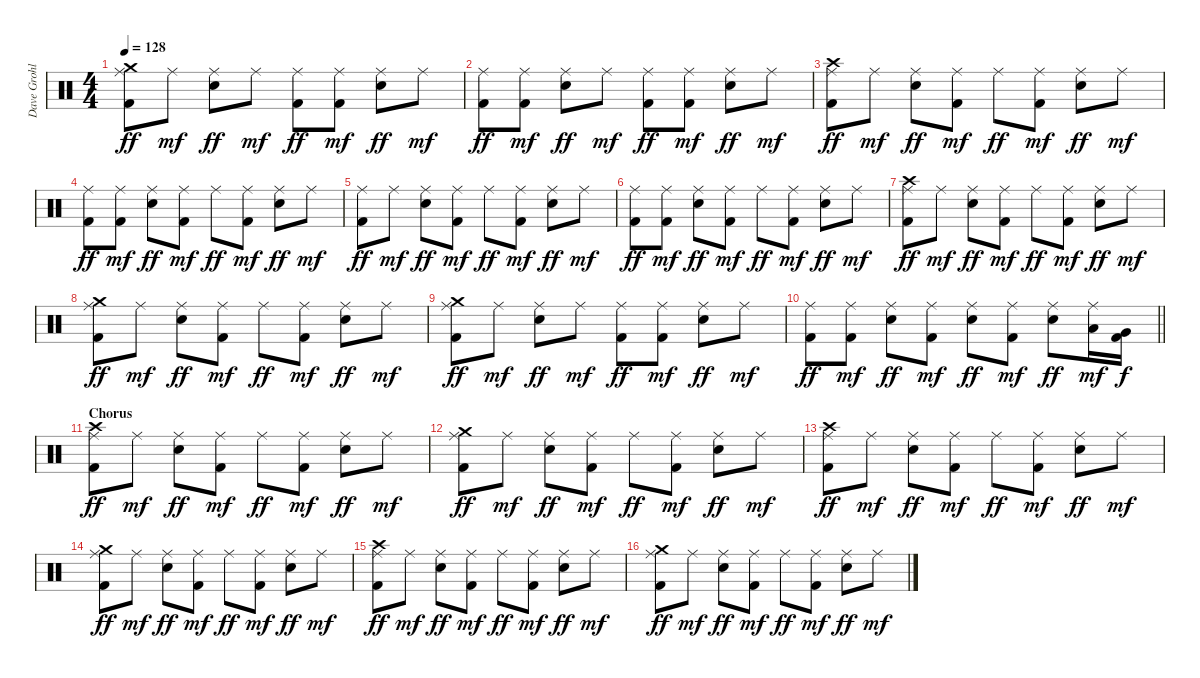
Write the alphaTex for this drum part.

\track ("Dave Grohl" "Dave Grohl") {instrument percussion}
\staff {score}
\articulation defaults
\ts (4 4)
\tempo 128
\clef neutral
\ks c
("Crash medium (hit)" "Ride (middle)" "Kick (hit) 2").8{dy ff} "Ride (middle)".8{dy mf} ("Ride (middle)" "Snare (hit) 2").8{dy ff} "Ride (middle)".8{dy mf} ("Ride (middle)" "Kick (hit) 2").8{dy ff} ("Ride (middle)" "Kick (hit) 2").8{dy mf} ("Ride (middle)" "Snare (hit) 2").8{dy ff} "Ride (middle)".8{dy mf} |
("Ride (middle)" "Kick (hit) 2").8{dy ff} ("Ride (middle)" "Kick (hit) 2").8{dy mf} ("Ride (middle)" "Snare (hit) 2").8{dy ff} "Ride (middle)".8{dy mf} ("Ride (middle)" "Kick (hit) 2").8{dy ff} ("Ride (middle)" "Kick (hit) 2").8{dy mf} ("Ride (middle)" "Snare (hit) 2").8{dy ff} "Ride (middle)".8{dy mf} |
("Crash high (hit)" "Ride (middle)" "Kick (hit) 2").8{dy ff} "Ride (middle)".8{dy mf} ("Ride (middle)" "Snare (hit) 2").8{dy ff} ("Ride (middle)" "Kick (hit) 2").8{dy mf} "Ride (middle)".8{dy ff} ("Ride (middle)" "Kick (hit) 2").8{dy mf} ("Ride (middle)" "Snare (hit) 2").8{dy ff} "Ride (middle)".8{dy mf} |
("Ride (middle)" "Kick (hit) 2").8{dy ff} ("Ride (middle)" "Kick (hit) 2").8{dy mf} ("Ride (middle)" "Snare (hit) 2").8{dy ff} ("Ride (middle)" "Kick (hit) 2").8{dy mf} "Ride (middle)".8{dy ff} ("Ride (middle)" "Kick (hit) 2").8{dy mf} ("Ride (middle)" "Snare (hit) 2").8{dy ff} "Ride (middle)".8{dy mf} |
("Ride (middle)" "Kick (hit) 2").8{dy ff} "Ride (middle)".8{dy mf} ("Ride (middle)" "Snare (hit) 2").8{dy ff} ("Ride (middle)" "Kick (hit) 2").8{dy mf} "Ride (middle)".8{dy ff} ("Ride (middle)" "Kick (hit) 2").8{dy mf} ("Ride (middle)" "Snare (hit) 2").8{dy ff} "Ride (middle)".8{dy mf} |
("Ride (middle)" "Kick (hit) 2").8{dy ff} ("Ride (middle)" "Kick (hit) 2").8{dy mf} ("Ride (middle)" "Snare (hit) 2").8{dy ff} ("Ride (middle)" "Kick (hit) 2").8{dy mf} "Ride (middle)".8{dy ff} ("Ride (middle)" "Kick (hit) 2").8{dy mf} ("Ride (middle)" "Snare (hit) 2").8{dy ff} "Ride (middle)".8{dy mf} |
("Crash high (hit)" "Ride (middle)" "Kick (hit) 2").8{dy ff} "Ride (middle)".8{dy mf} ("Ride (middle)" "Snare (hit) 2").8{dy ff} ("Ride (middle)" "Kick (hit) 2").8{dy mf} "Ride (middle)".8{dy ff} ("Ride (middle)" "Kick (hit) 2").8{dy mf} ("Ride (middle)" "Snare (hit) 2").8{dy ff} "Ride (middle)".8{dy mf} |
("Crash medium (hit)" "Ride (middle)" "Kick (hit) 2").8{dy ff} "Ride (middle)".8{dy mf} ("Ride (middle)" "Snare (hit) 2").8{dy ff} ("Ride (middle)" "Kick (hit) 2").8{dy mf} "Ride (middle)".8{dy ff} ("Ride (middle)" "Kick (hit) 2").8{dy mf} ("Ride (middle)" "Snare (hit) 2").8{dy ff} "Ride (middle)".8{dy mf} |
("Crash medium (hit)" "Ride (middle)" "Kick (hit) 2").8{dy ff} "Ride (middle)".8{dy mf} ("Ride (middle)" "Snare (hit) 2").8{dy ff} "Ride (middle)".8{dy mf} ("Ride (middle)" "Kick (hit) 2").8{dy ff} ("Ride (middle)" "Kick (hit) 2").8{dy mf} ("Ride (middle)" "Snare (hit) 2").8{dy ff} "Ride (middle)".8{dy mf} |
\barLineRight lightlight
("Ride (middle)" "Kick (hit) 2").8{dy ff} ("Ride (middle)" "Kick (hit) 2").8{dy mf} ("Ride (middle)" "Snare (hit) 2").8{dy ff} ("Ride (middle)" "Kick (hit) 2").8{dy mf} ("Ride (middle)" "Snare (hit) 2").8{dy ff} ("Ride (middle)" "Kick (hit) 2").8{dy mf} ("Ride (middle)" "Snare (hit) 2").8{dy ff} ("Ride (middle)" "Low Tom (hit)").16{dy mf} ("Very Low Tom (hit)" "Kick (hit) 2").16{dy f} |
\section ("" "Chorus")
("Crash high (hit)" "Ride (middle)" "Kick (hit) 2").8{dy ff} "Ride (middle)".8{dy mf} ("Ride (middle)" "Snare (hit) 2").8{dy ff} ("Ride (middle)" "Kick (hit) 2").8{dy mf} "Ride (middle)".8{dy ff} ("Ride (middle)" "Kick (hit) 2").8{dy mf} ("Ride (middle)" "Snare (hit) 2").8{dy ff} "Ride (middle)".8{dy mf} |
("Crash medium (hit)" "Ride (middle)" "Kick (hit) 2").8{dy ff} "Ride (middle)".8{dy mf} ("Ride (middle)" "Snare (hit) 2").8{dy ff} ("Ride (middle)" "Kick (hit) 2").8{dy mf} "Ride (middle)".8{dy ff} ("Ride (middle)" "Kick (hit) 2").8{dy mf} ("Ride (middle)" "Snare (hit) 2").8{dy ff} "Ride (middle)".8{dy mf} |
("Crash high (hit)" "Ride (middle)" "Kick (hit) 2").8{dy ff} "Ride (middle)".8{dy mf} ("Ride (middle)" "Snare (hit) 2").8{dy ff} ("Ride (middle)" "Kick (hit) 2").8{dy mf} "Ride (middle)".8{dy ff} ("Ride (middle)" "Kick (hit) 2").8{dy mf} ("Ride (middle)" "Snare (hit) 2").8{dy ff} "Ride (middle)".8{dy mf} |
("Crash medium (hit)" "Ride (middle)" "Kick (hit) 2").8{dy ff} "Ride (middle)".8{dy mf} ("Ride (middle)" "Snare (hit) 2").8{dy ff} ("Ride (middle)" "Kick (hit) 2").8{dy mf} "Ride (middle)".8{dy ff} ("Ride (middle)" "Kick (hit) 2").8{dy mf} ("Ride (middle)" "Snare (hit) 2").8{dy ff} "Ride (middle)".8{dy mf} |
("Crash high (hit)" "Ride (middle)" "Kick (hit) 2").8{dy ff} "Ride (middle)".8{dy mf} ("Ride (middle)" "Snare (hit) 2").8{dy ff} ("Ride (middle)" "Kick (hit) 2").8{dy mf} "Ride (middle)".8{dy ff} ("Ride (middle)" "Kick (hit) 2").8{dy mf} ("Ride (middle)" "Snare (hit) 2").8{dy ff} "Ride (middle)".8{dy mf} |
("Crash medium (hit)" "Ride (middle)" "Kick (hit) 2").8{dy ff} "Ride (middle)".8{dy mf} ("Ride (middle)" "Snare (hit) 2").8{dy ff} ("Ride (middle)" "Kick (hit) 2").8{dy mf} "Ride (middle)".8{dy ff} ("Ride (middle)" "Kick (hit) 2").8{dy mf} ("Ride (middle)" "Snare (hit) 2").8{dy ff} "Ride (middle)".8{dy mf}
